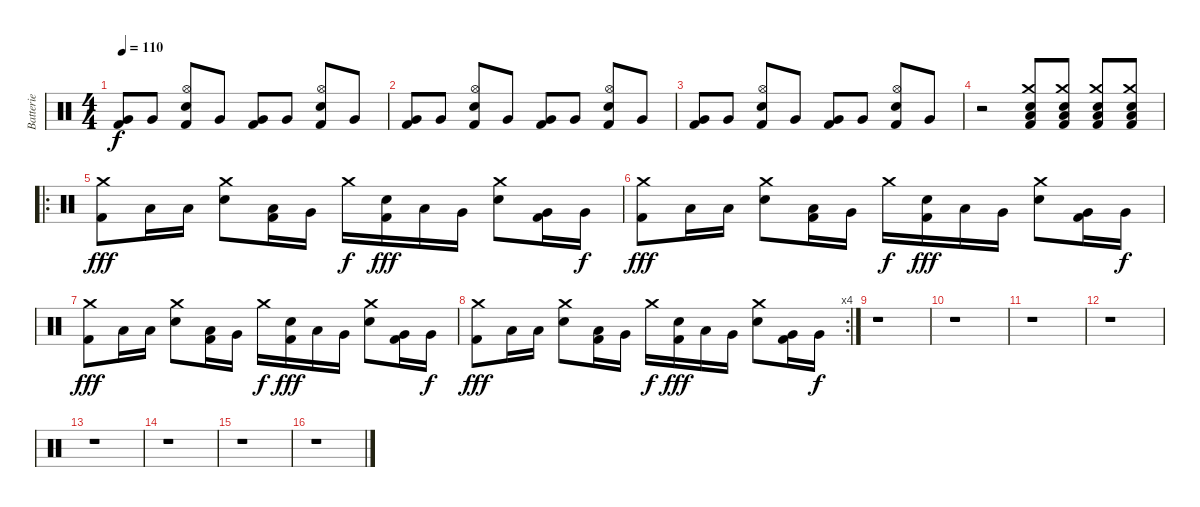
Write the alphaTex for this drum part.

\track ("Batterie" "Batterie") {instrument percussion}
\staff {score}
\articulation defaults
\ts (4 4)
\tempo 110
\clef neutral
\ks c
("Very Low Tom (hit)" "Kick (hit) 2").8{dy f} "Very Low Tom (hit)".8 ("Hi-Hat (open)" "Snare (hit) 2" "Kick (hit) 2").8 "Very Low Tom (hit)".8 ("Very Low Tom (hit)" "Kick (hit) 2").8 "Very Low Tom (hit)".8 ("Hi-Hat (open)" "Snare (hit) 2" "Kick (hit) 2").8 "Very Low Tom (hit)".8 |
("Very Low Tom (hit)" "Kick (hit) 2").8 "Very Low Tom (hit)".8 ("Hi-Hat (open)" "Snare (hit) 2" "Kick (hit) 2").8 "Very Low Tom (hit)".8 ("Very Low Tom (hit)" "Kick (hit) 2").8 "Very Low Tom (hit)".8 ("Hi-Hat (open)" "Snare (hit) 2" "Kick (hit) 2").8 "Very Low Tom (hit)".8 |
("Very Low Tom (hit)" "Kick (hit) 2").8 "Very Low Tom (hit)".8 ("Hi-Hat (open)" "Snare (hit) 2" "Kick (hit) 2").8 "Very Low Tom (hit)".8 ("Very Low Tom (hit)" "Kick (hit) 2").8 "Very Low Tom (hit)".8 ("Hi-Hat (open)" "Snare (hit) 2" "Kick (hit) 2").8 "Very Low Tom (hit)".8 |
r.2 ("Crash medium (hit)" "Snare (hit) 2" "Low Tom (hit)" "Kick (hit) 2").8 ("Crash medium (hit)" "Snare (hit) 2" "Low Tom (hit)" "Kick (hit) 2").8 ("Crash medium (hit)" "Snare (hit) 2" "Low Tom (hit)" "Kick (hit) 2").8 ("Crash medium (hit)" "Snare (hit) 2" "Low Tom (hit)" "Kick (hit) 2").8 |
\ro
("Crash medium (hit)" "Kick (hit) 2").8{dy fff} "Low Tom (hit)".16 "Low Tom (hit)".16 ("Crash medium (hit)" "Snare (hit) 2").8 ("Low Tom (hit)" "Kick (hit) 2").16 "Very Low Tom (hit)".16 "Crash medium (hit)".16{dy f} ("Snare (hit) 2" "Kick (hit) 2").16{dy fff} "Low Tom (hit)".16 "Very Low Tom (hit)".16 ("Crash medium (hit)" "Snare (hit) 2").8 ("Very Low Tom (hit)" "Kick (hit) 2").16 "Very Low Tom (hit)".16{dy f} |
("Crash medium (hit)" "Kick (hit) 2").8{dy fff} "Low Tom (hit)".16 "Low Tom (hit)".16 ("Crash medium (hit)" "Snare (hit) 2").8 ("Low Tom (hit)" "Kick (hit) 2").16 "Very Low Tom (hit)".16 "Crash medium (hit)".16{dy f} ("Snare (hit) 2" "Kick (hit) 2").16{dy fff} "Low Tom (hit)".16 "Very Low Tom (hit)".16 ("Crash medium (hit)" "Snare (hit) 2").8 ("Very Low Tom (hit)" "Kick (hit) 2").16 "Very Low Tom (hit)".16{dy f} |
("Crash medium (hit)" "Kick (hit) 2").8{dy fff} "Low Tom (hit)".16 "Low Tom (hit)".16 ("Crash medium (hit)" "Snare (hit) 2").8 ("Low Tom (hit)" "Kick (hit) 2").16 "Very Low Tom (hit)".16 "Crash medium (hit)".16{dy f} ("Snare (hit) 2" "Kick (hit) 2").16{dy fff} "Low Tom (hit)".16 "Very Low Tom (hit)".16 ("Crash medium (hit)" "Snare (hit) 2").8 ("Very Low Tom (hit)" "Kick (hit) 2").16 "Very Low Tom (hit)".16{dy f} |
\rc 4
("Crash medium (hit)" "Kick (hit) 2").8{dy fff} "Low Tom (hit)".16 "Low Tom (hit)".16 ("Crash medium (hit)" "Snare (hit) 2").8 ("Low Tom (hit)" "Kick (hit) 2").16 "Very Low Tom (hit)".16 "Crash medium (hit)".16{dy f} ("Snare (hit) 2" "Kick (hit) 2").16{dy fff} "Low Tom (hit)".16 "Very Low Tom (hit)".16 ("Crash medium (hit)" "Snare (hit) 2").8 ("Very Low Tom (hit)" "Kick (hit) 2").16 "Very Low Tom (hit)".16{dy f} |
r.1 |
r.1 |
r.1 |
r.1 |
r.1 |
r.1 |
r.1 |
r.1
